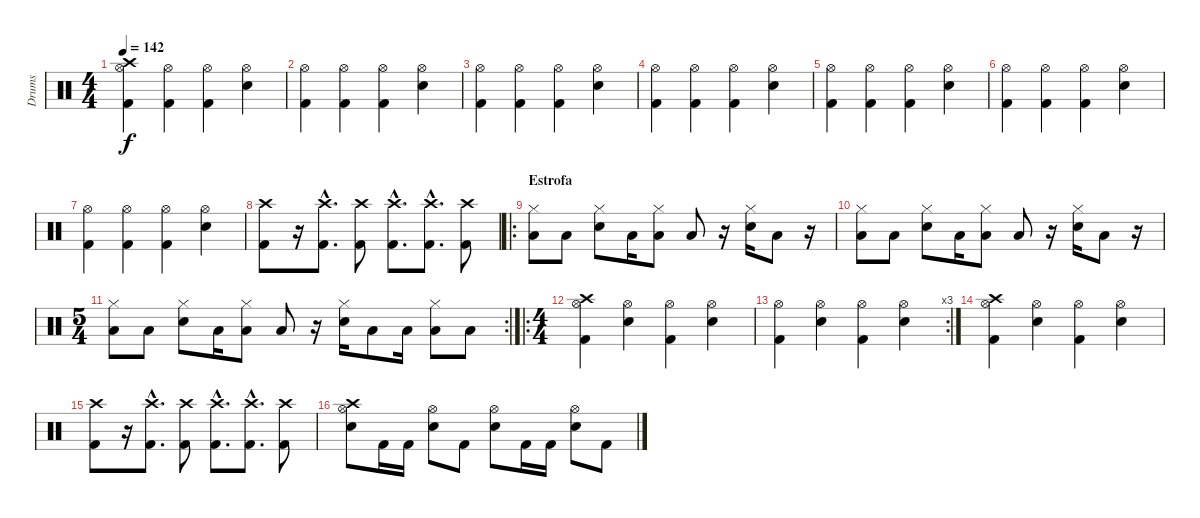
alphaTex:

\track ("Drums" "Drums") {instrument percussion}
\staff {score}
\articulation defaults
\ts (4 4)
\tempo 142
\clef neutral
\ks c
("Kick (hit) 2" "Hi-Hat (open)" "Crash high (hit)").4{dy f} ("Kick (hit) 2" "Hi-Hat (open)").4 ("Kick (hit) 2" "Hi-Hat (open)").4 ("Snare (hit) 2" "Hi-Hat (open)").4 |
("Kick (hit) 2" "Hi-Hat (open)").4 ("Kick (hit) 2" "Hi-Hat (open)").4 ("Kick (hit) 2" "Hi-Hat (open)").4 ("Snare (hit) 2" "Hi-Hat (open)").4 |
("Kick (hit) 2" "Hi-Hat (open)").4 ("Kick (hit) 2" "Hi-Hat (open)").4 ("Kick (hit) 2" "Hi-Hat (open)").4 ("Snare (hit) 2" "Hi-Hat (open)").4 |
("Kick (hit) 2" "Hi-Hat (open)").4 ("Kick (hit) 2" "Hi-Hat (open)").4 ("Kick (hit) 2" "Hi-Hat (open)").4 ("Snare (hit) 2" "Hi-Hat (open)").4 |
("Kick (hit) 2" "Hi-Hat (open)").4 ("Kick (hit) 2" "Hi-Hat (open)").4 ("Kick (hit) 2" "Hi-Hat (open)").4 ("Snare (hit) 2" "Hi-Hat (open)").4 |
("Kick (hit) 2" "Hi-Hat (open)").4 ("Kick (hit) 2" "Hi-Hat (open)").4 ("Kick (hit) 2" "Hi-Hat (open)").4 ("Snare (hit) 2" "Hi-Hat (open)").4 |
("Kick (hit) 2" "Hi-Hat (open)").4 ("Kick (hit) 2" "Hi-Hat (open)").4 ("Kick (hit) 2" "Hi-Hat (open)").4 ("Snare (hit) 2" "Hi-Hat (open)").4 |
("Kick (hit) 2" "Crash high (hit)").8 r.16 ("Kick (hit) 2"{hac} "Crash high (hit)"{hac}).8{d} ("Kick (hit) 2" "Crash high (hit)").8 ("Kick (hit) 2"{hac} "Crash high (hit)"{hac}).8{d} ("Kick (hit) 2"{hac} "Crash high (hit)"{hac}).8{d} ("Kick (hit) 2" "Crash high (hit)").8 |
\ro
\section ("" "Estrofa")
("Low Tom (hit)" "Hi-Hat (closed)").8 "Low Tom (hit)".8 ("Snare (hit) 2" "Hi-Hat (closed)").8 "Low Tom (hit)".16 ("Low Tom (hit)" "Hi-Hat (closed)").8 "Low Tom (hit)".8 r.16 ("Snare (hit) 2" "Hi-Hat (closed)").16 "Low Tom (hit)".8 r.16 |
("Low Tom (hit)" "Hi-Hat (closed)").8 "Low Tom (hit)".8 ("Snare (hit) 2" "Hi-Hat (closed)").8 "Low Tom (hit)".16 ("Low Tom (hit)" "Hi-Hat (closed)").8 "Low Tom (hit)".8 r.16 ("Snare (hit) 2" "Hi-Hat (closed)").16 "Low Tom (hit)".8 r.16 |
\rc 2
\ts (5 4)
("Low Tom (hit)" "Hi-Hat (closed)").8 "Low Tom (hit)".8 ("Snare (hit) 2" "Hi-Hat (closed)").8 "Low Tom (hit)".16 ("Low Tom (hit)" "Hi-Hat (closed)").8 "Low Tom (hit)".8 r.16 ("Snare (hit) 2" "Hi-Hat (closed)").16 "Low Tom (hit)".8 "Low Tom (hit)".16 ("Low Tom (hit)" "Hi-Hat (closed)").8 "Low Tom (hit)".8 |
\ro
\ts (4 4)
("Kick (hit) 2" "Hi-Hat (open)" "Crash high (hit)").4 ("Snare (hit) 2" "Hi-Hat (open)").4 ("Kick (hit) 2" "Hi-Hat (open)").4 ("Snare (hit) 2" "Hi-Hat (open)").4 |
\rc 3
("Kick (hit) 2" "Hi-Hat (open)").4 ("Snare (hit) 2" "Hi-Hat (open)").4 ("Kick (hit) 2" "Hi-Hat (open)").4 ("Snare (hit) 2" "Hi-Hat (open)").4 |
("Kick (hit) 2" "Hi-Hat (open)" "Crash high (hit)").4 ("Snare (hit) 2" "Hi-Hat (open)").4 ("Kick (hit) 2" "Hi-Hat (open)").4 ("Snare (hit) 2" "Hi-Hat (open)").4 |
("Kick (hit) 2" "Crash high (hit)").8 r.16 ("Kick (hit) 2"{hac} "Crash high (hit)"{hac}).8{d} ("Kick (hit) 2" "Crash high (hit)").8 ("Kick (hit) 2"{hac} "Crash high (hit)"{hac}).8{d} ("Kick (hit) 2"{hac} "Crash high (hit)"{hac}).8{d} ("Kick (hit) 2" "Crash high (hit)").8 |
("Snare (hit) 2" "Hi-Hat (open)" "Crash high (hit)").8 "Kick (hit) 2".16 "Kick (hit) 2".16 ("Snare (hit) 2" "Hi-Hat (open)").8 "Kick (hit) 2".8 ("Snare (hit) 2" "Hi-Hat (open)").8 "Kick (hit) 2".16 "Kick (hit) 2".16 ("Snare (hit) 2" "Hi-Hat (open)").8 "Kick (hit) 2".8
